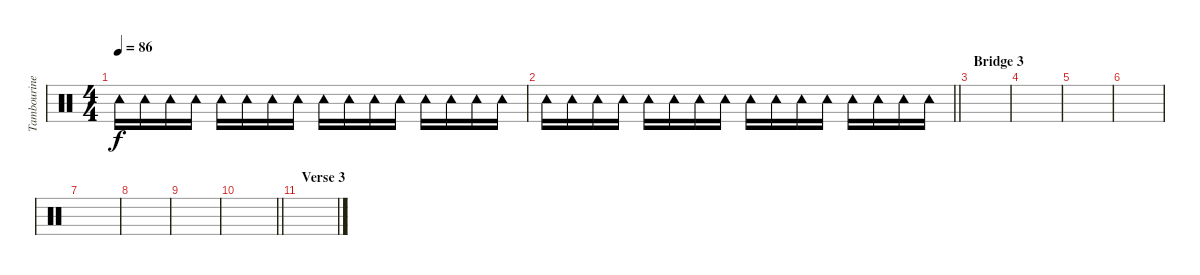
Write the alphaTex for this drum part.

\track ("Tambourine" "Tambourine") {instrument percussion}
\staff {score}
\articulation defaults
\ts (4 4)
\tempo 86
\clef neutral
\ks c "Tambourine (hit)".16{dy f} "Tambourine (hit)".16 "Tambourine (hit)".16 "Tambourine (hit)".16 "Tambourine (hit)".16 "Tambourine (hit)".16 "Tambourine (hit)".16 "Tambourine (hit)".16 "Tambourine (hit)".16 "Tambourine (hit)".16 "Tambourine (hit)".16 "Tambourine (hit)".16 "Tambourine (hit)".16 "Tambourine (hit)".16 "Tambourine (hit)".16 "Tambourine (hit)".16
|
\barLineRight lightlight "Tambourine (hit)".16 "Tambourine (hit)".16 "Tambourine (hit)".16 "Tambourine (hit)".16 "Tambourine (hit)".16 "Tambourine (hit)".16 "Tambourine (hit)".16 "Tambourine (hit)".16 "Tambourine (hit)".16 "Tambourine (hit)".16 "Tambourine (hit)".16 "Tambourine (hit)".16 "Tambourine (hit)".16 "Tambourine (hit)".16 "Tambourine (hit)".16 "Tambourine (hit)".16
|
\section ("" "Bridge 3")
|
|
|
|
|
|
|
\barLineRight lightlight
|
\section ("" "Verse 3")
